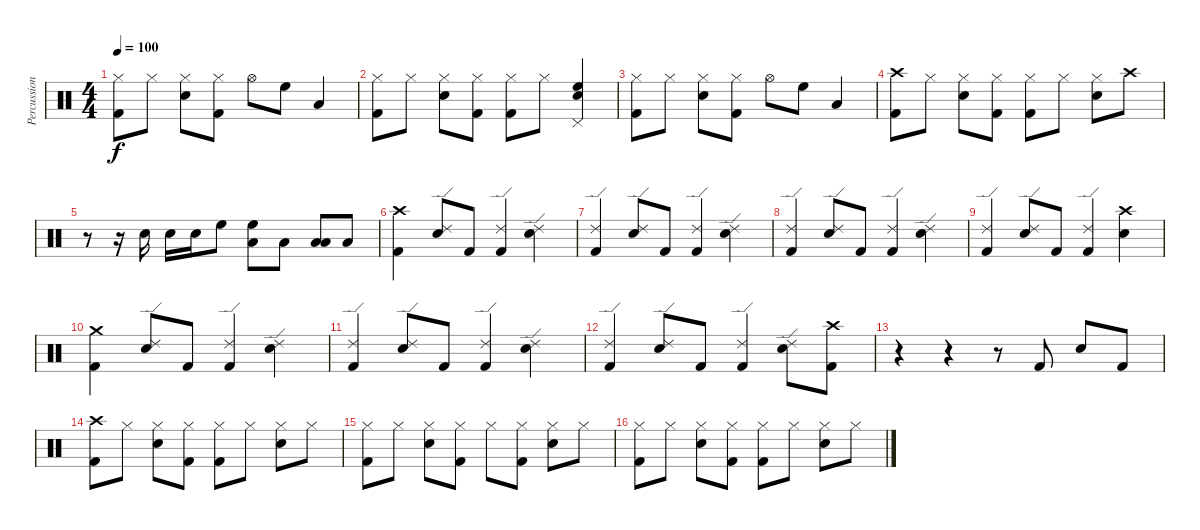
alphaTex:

\track ("Percussion" "Percussion") {instrument percussion}
\staff {score}
\articulation defaults
\ts (4 4)
\tempo 100
\clef neutral
\ks c
("Hi-Hat (closed)" "Kick (hit) 2").8{dy f} "Hi-Hat (closed)".8 ("Hi-Hat (closed)" "Snare (hit) 2").8 ("Hi-Hat (closed)" "Kick (hit) 2").8 "Hi-Hat (open)".8 "High Floor Tom (hit)".8 "Low Tom (hit)".4 |
("Hi-Hat (closed)" "Kick (hit) 2").8 "Hi-Hat (closed)".8 ("Hi-Hat (closed)" "Snare (hit) 2").8 ("Hi-Hat (closed)" "Kick (hit) 2").8 ("Hi-Hat (closed)" "Kick (hit) 2").8 "Hi-Hat (closed)".8 ("Pedal Hi-Hat (hit)" "High Floor Tom (hit)" "Snare (hit) 2").4 |
("Hi-Hat (closed)" "Kick (hit) 2").8 "Hi-Hat (closed)".8 ("Hi-Hat (closed)" "Snare (hit) 2").8 ("Hi-Hat (closed)" "Kick (hit) 2").8 "Hi-Hat (open)".8 "High Floor Tom (hit)".8 "Low Tom (hit)".4 |
("Crash high (hit)" "Kick (hit) 2").8 "Hi-Hat (closed)".8 ("Hi-Hat (closed)" "Snare (hit) 2").8 ("Hi-Hat (closed)" "Kick (hit) 2").8 ("Hi-Hat (closed)" "Kick (hit) 2").8 "Hi-Hat (closed)".8 ("Hi-Hat (closed)" "Snare (hit) 2").8 "Crash high (hit)".8 |
r.8 r.16 "Snare (hit) 2".16 "Snare (hit) 2".16 "Snare (hit) 2".16 "High Floor Tom (hit)".8 ("High Floor Tom (hit)" "Low Tom (hit)").8 "Low Tom (hit)".8 ("Low Tom (hit)" "Low Floor Tom (hit)").8 "Low Floor Tom (hit)".8 |
("Crash high (hit)" "Kick (hit) 2").4 ("Ride (edge) 2" "Snare (hit) 2").8 "Kick (hit) 2".8 ("Ride (edge) 2" "Kick (hit) 2").4 ("Ride (edge) 2" "Snare (hit) 2").4 |
("Ride (edge) 2" "Kick (hit) 2").4 ("Ride (edge) 2" "Snare (hit) 2").8 "Kick (hit) 2".8 ("Ride (edge) 2" "Kick (hit) 2").4 ("Ride (edge) 2" "Snare (hit) 2").4 |
("Ride (edge) 2" "Kick (hit) 2").4 ("Ride (edge) 2" "Snare (hit) 2").8 "Kick (hit) 2".8 ("Ride (edge) 2" "Kick (hit) 2").4 ("Ride (edge) 2" "Snare (hit) 2").4 |
("Ride (edge) 2" "Kick (hit) 2").4 ("Ride (edge) 2" "Snare (hit) 2").8 "Kick (hit) 2".8 ("Ride (edge) 2" "Kick (hit) 2").4 ("Crash high (hit)" "Snare (hit) 2").4 |
("Crash medium (hit)" "Kick (hit) 2").4 ("Ride (edge) 2" "Snare (hit) 2").8 "Kick (hit) 2".8 ("Ride (edge) 2" "Kick (hit) 2").4 ("Ride (edge) 2" "Snare (hit) 2").4 |
("Ride (edge) 2" "Kick (hit) 2").4 ("Ride (edge) 2" "Snare (hit) 2").8 "Kick (hit) 2".8 ("Ride (edge) 2" "Kick (hit) 2").4 ("Ride (edge) 2" "Snare (hit) 2").4 |
("Ride (edge) 2" "Kick (hit) 2").4 ("Ride (edge) 2" "Snare (hit) 2").8 "Kick (hit) 2".8 ("Ride (edge) 2" "Kick (hit) 2").4 ("Ride (edge) 2" "Snare (hit) 2").8 ("Crash high (hit)" "Kick (hit) 2").8 |
r.4 r.4 r.8 "Kick (hit) 2".8 "Snare (hit) 2".8 "Kick (hit) 2".8 |
("Crash high (hit)" "Kick (hit) 2").8 "Hi-Hat (closed)".8 ("Hi-Hat (closed)" "Snare (hit) 2").8 ("Hi-Hat (closed)" "Kick (hit) 2").8 ("Hi-Hat (closed)" "Kick (hit) 2").8 "Hi-Hat (closed)".8 ("Hi-Hat (closed)" "Snare (hit) 2").8 "Hi-Hat (closed)".8 |
("Hi-Hat (closed)" "Kick (hit) 2").8 "Hi-Hat (closed)".8 ("Hi-Hat (closed)" "Snare (hit) 2").8 ("Hi-Hat (closed)" "Kick (hit) 2").8 "Hi-Hat (closed)".8 ("Hi-Hat (closed)" "Kick (hit) 2").8 ("Hi-Hat (closed)" "Snare (hit) 2").8 "Hi-Hat (closed)".8 |
("Hi-Hat (closed)" "Kick (hit) 2").8 "Hi-Hat (closed)".8 ("Hi-Hat (closed)" "Snare (hit) 2").8 ("Hi-Hat (closed)" "Kick (hit) 2").8 ("Hi-Hat (closed)" "Kick (hit) 2").8 "Hi-Hat (closed)".8 ("Hi-Hat (closed)" "Snare (hit) 2").8 "Hi-Hat (closed)".8
